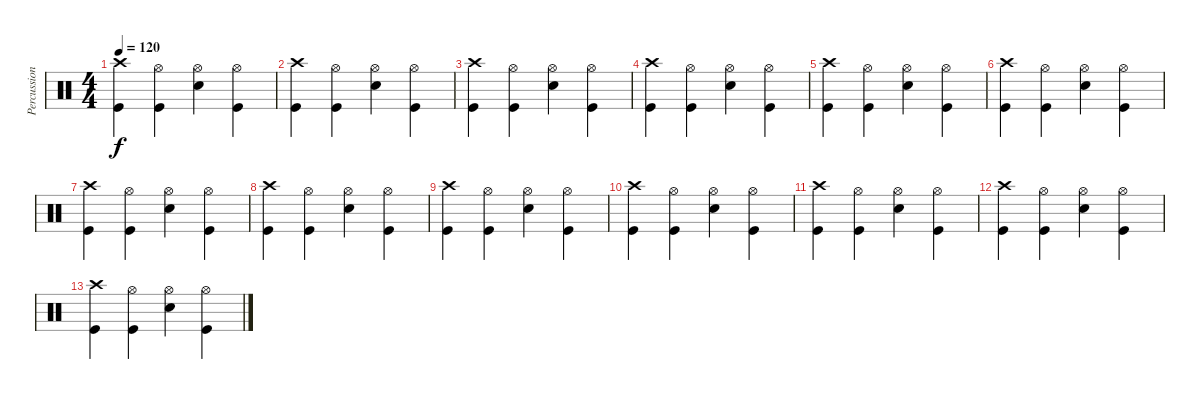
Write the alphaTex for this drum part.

\track ("Percussion" "Percussion") {instrument percussion}
\staff {score}
\articulation defaults
\ts (4 4)
\tempo 120
\clef neutral
\ks c
("Crash high (hit)" "Kick (hit)").4{dy f} ("Hi-Hat (open)" "Kick (hit)").4 ("Hi-Hat (open)" "Snare (hit) 2").4 ("Hi-Hat (open)" "Kick (hit)").4 |
("Crash high (hit)" "Kick (hit)").4 ("Hi-Hat (open)" "Kick (hit)").4 ("Hi-Hat (open)" "Snare (hit) 2").4 ("Hi-Hat (open)" "Kick (hit)").4 |
("Crash high (hit)" "Kick (hit)").4 ("Hi-Hat (open)" "Kick (hit)").4 ("Hi-Hat (open)" "Snare (hit) 2").4 ("Hi-Hat (open)" "Kick (hit)").4 |
("Crash high (hit)" "Kick (hit)").4 ("Hi-Hat (open)" "Kick (hit)").4 ("Hi-Hat (open)" "Snare (hit) 2").4 ("Hi-Hat (open)" "Kick (hit)").4 |
("Crash high (hit)" "Kick (hit)").4 ("Hi-Hat (open)" "Kick (hit)").4 ("Hi-Hat (open)" "Snare (hit) 2").4 ("Hi-Hat (open)" "Kick (hit)").4 |
("Crash high (hit)" "Kick (hit)").4 ("Hi-Hat (open)" "Kick (hit)").4 ("Hi-Hat (open)" "Snare (hit) 2").4 ("Hi-Hat (open)" "Kick (hit)").4 |
("Crash high (hit)" "Kick (hit)").4 ("Hi-Hat (open)" "Kick (hit)").4 ("Hi-Hat (open)" "Snare (hit) 2").4 ("Hi-Hat (open)" "Kick (hit)").4 |
("Crash high (hit)" "Kick (hit)").4 ("Hi-Hat (open)" "Kick (hit)").4 ("Hi-Hat (open)" "Snare (hit) 2").4 ("Hi-Hat (open)" "Kick (hit)").4 |
("Crash high (hit)" "Kick (hit)").4 ("Hi-Hat (open)" "Kick (hit)").4 ("Hi-Hat (open)" "Snare (hit) 2").4 ("Hi-Hat (open)" "Kick (hit)").4 |
("Crash high (hit)" "Kick (hit)").4 ("Hi-Hat (open)" "Kick (hit)").4 ("Hi-Hat (open)" "Snare (hit) 2").4 ("Hi-Hat (open)" "Kick (hit)").4 |
("Crash high (hit)" "Kick (hit)").4 ("Hi-Hat (open)" "Kick (hit)").4 ("Hi-Hat (open)" "Snare (hit) 2").4 ("Hi-Hat (open)" "Kick (hit)").4 |
("Crash high (hit)" "Kick (hit)").4 ("Hi-Hat (open)" "Kick (hit)").4 ("Hi-Hat (open)" "Snare (hit) 2").4 ("Hi-Hat (open)" "Kick (hit)").4 |
("Crash high (hit)" "Kick (hit)").4 ("Hi-Hat (open)" "Kick (hit)").4 ("Hi-Hat (open)" "Snare (hit) 2").4 ("Hi-Hat (open)" "Kick (hit)").4
